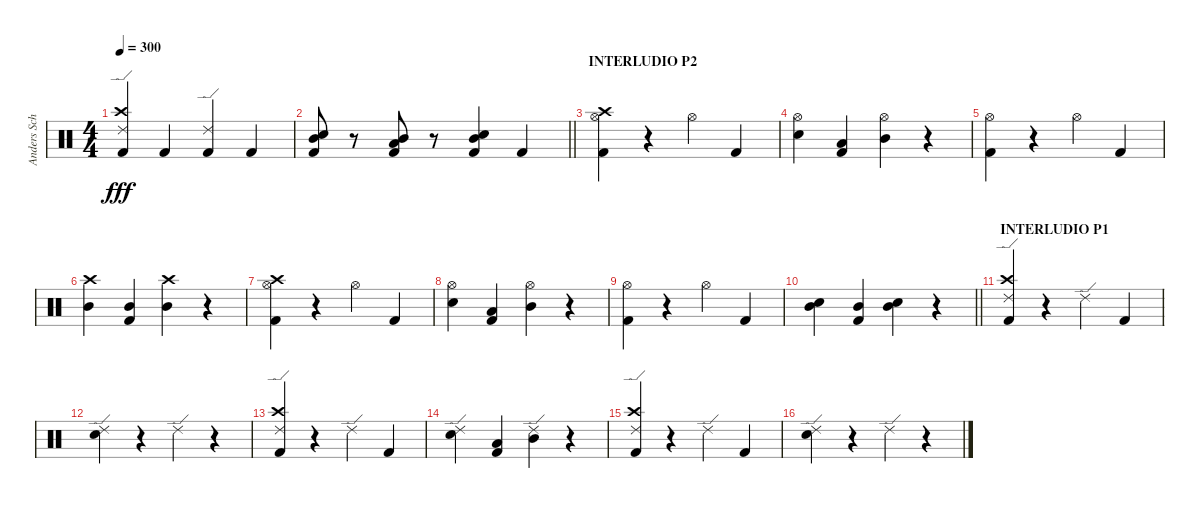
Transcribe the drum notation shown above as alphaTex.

\track ("Anders Schultz" "Anders Sch") {instrument percussion}
\staff {score}
\articulation defaults
\ts (4 4)
\tempo 300
\clef neutral
\ks c
("Ride (edge) 2" "Crash high (hit)" "Kick (hit) 2").4{dy fff} "Kick (hit) 2".4 ("Ride (edge) 2" "Kick (hit) 2").4 "Kick (hit) 2".4 |
\barLineRight lightlight
("Snare (hit) 2" "Mid Tom (hit)" "Kick (hit) 2").8 r.8 ("Low Tom (hit)" "Mid Tom (hit)" "Kick (hit) 2").8 r.8 ("Snare (hit) 2" "Mid Tom (hit)" "Kick (hit) 2").4 "Kick (hit) 2".4 |
\section ("" "INTERLUDIO P2")
("Hi-Hat (open)" "Crash high (hit)" "Kick (hit) 2").4 r.4 "Hi-Hat (open)".4 "Kick (hit) 2".4 |
("Hi-Hat (open)" "Snare (hit) 2").4 ("Low Tom (hit)" "Kick (hit) 2").4 ("Hi-Hat (open)" "Mid Tom (hit)").4 r.4 |
("Hi-Hat (open)" "Kick (hit) 2").4 r.4 "Hi-Hat (open)".4 "Kick (hit) 2".4 |
("Crash high (hit)" "Mid Tom (hit)").4 ("Mid Tom (hit)" "Kick (hit) 2").4 ("Crash high (hit)" "Mid Tom (hit)").4 r.4 |
("Hi-Hat (open)" "Crash high (hit)" "Kick (hit) 2").4 r.4 "Hi-Hat (open)".4 "Kick (hit) 2".4 |
("Hi-Hat (open)" "Snare (hit) 2").4 ("Low Tom (hit)" "Kick (hit) 2").4 ("Hi-Hat (open)" "Mid Tom (hit)").4 r.4 |
("Hi-Hat (open)" "Kick (hit) 2").4 r.4 "Hi-Hat (open)".4 "Kick (hit) 2".4 |
\barLineRight lightlight
("Snare (hit) 2" "Mid Tom (hit)").4 ("Mid Tom (hit)" "Kick (hit) 2").4 ("Snare (hit) 2" "Mid Tom (hit)").4 r.4 |
\section ("" "INTERLUDIO P1")
("Ride (edge) 2" "Crash high (hit)" "Kick (hit) 2").4 r.4 "Ride (edge) 2".4 "Kick (hit) 2".4 |
("Ride (edge) 2" "Snare (hit) 2").4 r.4 "Ride (edge) 2".4 r.4 |
("Ride (edge) 2" "Crash high (hit)" "Kick (hit) 2").4 r.4 "Ride (edge) 2".4 "Kick (hit) 2".4 |
("Ride (edge) 2" "Snare (hit) 2").4 ("Low Tom (hit)" "Kick (hit) 2").4 ("Ride (edge) 2" "Mid Tom (hit)").4 r.4 |
("Ride (edge) 2" "Crash high (hit)" "Kick (hit) 2").4 r.4 "Ride (edge) 2".4 "Kick (hit) 2".4 |
("Ride (edge) 2" "Snare (hit) 2").4 r.4 "Ride (edge) 2".4 r.4
